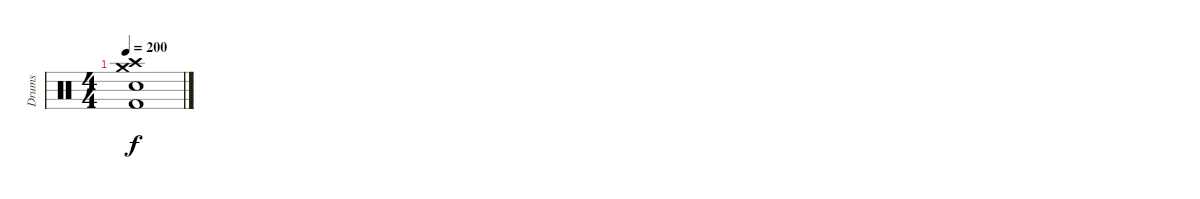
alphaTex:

\track ("Drums" "Drums") {instrument percussion}
\staff {score}
\articulation defaults
\ts (4 4)
\tempo 200
\clef neutral
\ks c
("Kick (hit) 2" "Electric Snare (hit)" "Crash high (hit)" "Crash medium (hit)").1{dy f}
